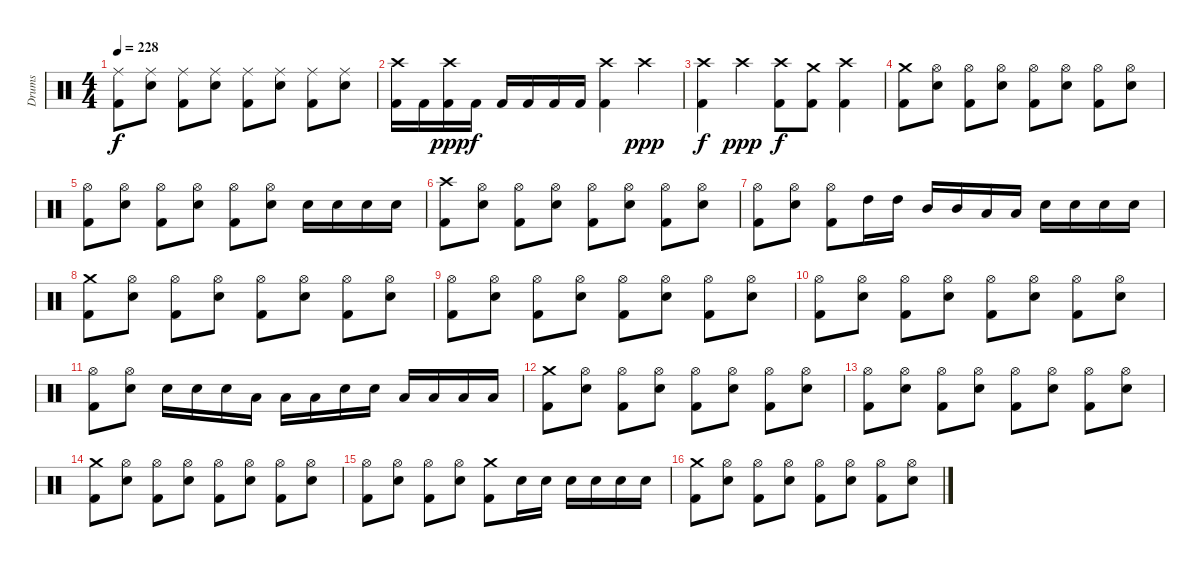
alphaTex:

\track ("Drums" "Drums") {instrument percussion}
\staff {score}
\articulation defaults
\ts (4 4)
\tempo 228
\clef neutral
\ks c
("Ride (middle)" "Kick (hit) 2").8{dy f} ("Electric Snare (hit)" "Ride (middle)").8 ("Kick (hit) 2" "Ride (middle)").8 ("Electric Snare (hit)" "Ride (middle)").8 ("Kick (hit) 2" "Ride (middle)").8 ("Electric Snare (hit)" "Ride (middle)").8 ("Kick (hit) 2" "Ride (middle)").8 ("Electric Snare (hit)" "Ride (middle)").8 |
("Crash high (hit)" "Kick (hit) 2").16 "Kick (hit) 2".16 ("Crash high (hit)" "Kick (hit) 2").16{dy ppp} "Kick (hit) 2".16{dy f} "Kick (hit) 2".16 "Kick (hit) 2".16 "Kick (hit) 2".16 "Kick (hit) 2".16 ("Crash high (hit)" "Kick (hit) 2").4 "Crash high (hit)".4{dy ppp} |
("Crash high (hit)" "Kick (hit) 2").4{dy f} "Crash high (hit)".4{dy ppp} ("Crash high (hit)" "Kick (hit) 2").8{dy f} ("Kick (hit) 2" "Crash medium (hit)").8 ("Crash high (hit)" "Kick (hit) 2").4 |
("Kick (hit) 2" "Crash medium (hit)").8 ("Hi-Hat (open)" "Electric Snare (hit)").8 ("Hi-Hat (open)" "Kick (hit) 2").8 ("Hi-Hat (open)" "Electric Snare (hit)").8 ("Hi-Hat (open)" "Kick (hit) 2").8 ("Hi-Hat (open)" "Electric Snare (hit)").8 ("Hi-Hat (open)" "Kick (hit) 2").8 ("Hi-Hat (open)" "Electric Snare (hit)").8 |
("Kick (hit) 2" "Hi-Hat (open)").8 ("Hi-Hat (open)" "Electric Snare (hit)").8 ("Hi-Hat (open)" "Kick (hit) 2").8 ("Hi-Hat (open)" "Electric Snare (hit)").8 ("Hi-Hat (open)" "Kick (hit) 2").8 ("Hi-Hat (open)" "Electric Snare (hit)").8 "Electric Snare (hit)".16 "Electric Snare (hit)".16 "Electric Snare (hit)".16 "Electric Snare (hit)".16 |
("Kick (hit) 2" "Crash high (hit)").8 ("Hi-Hat (open)" "Electric Snare (hit)").8 ("Hi-Hat (open)" "Kick (hit) 2").8 ("Hi-Hat (open)" "Electric Snare (hit)").8 ("Hi-Hat (open)" "Kick (hit) 2").8 ("Hi-Hat (open)" "Electric Snare (hit)").8 ("Hi-Hat (open)" "Kick (hit) 2").8 ("Hi-Hat (open)" "Electric Snare (hit)").8 |
("Kick (hit) 2" "Hi-Hat (open)").8 ("Hi-Hat (open)" "Electric Snare (hit)").8 ("Hi-Hat (open)" "Kick (hit) 2").8 "High Tom (hit)".16 "High Tom (hit)".16 "Mid Tom (hit)".16 "Mid Tom (hit)".16 "Low Tom (hit)".16 "Low Tom (hit)".16 "Electric Snare (hit)".16 "Electric Snare (hit)".16 "Electric Snare (hit)".16 "Electric Snare (hit)".16 |
("Kick (hit) 2" "Crash medium (hit)").8 ("Hi-Hat (open)" "Electric Snare (hit)").8 ("Hi-Hat (open)" "Kick (hit) 2").8 ("Hi-Hat (open)" "Electric Snare (hit)").8 ("Hi-Hat (open)" "Kick (hit) 2").8 ("Hi-Hat (open)" "Electric Snare (hit)").8 ("Hi-Hat (open)" "Kick (hit) 2").8 ("Hi-Hat (open)" "Electric Snare (hit)").8 |
("Kick (hit) 2" "Hi-Hat (open)").8 ("Hi-Hat (open)" "Electric Snare (hit)").8 ("Hi-Hat (open)" "Kick (hit) 2").8 ("Hi-Hat (open)" "Electric Snare (hit)").8 ("Hi-Hat (open)" "Kick (hit) 2").8 ("Hi-Hat (open)" "Electric Snare (hit)").8 ("Hi-Hat (open)" "Kick (hit) 2").8 ("Hi-Hat (open)" "Electric Snare (hit)").8 |
("Kick (hit) 2" "Hi-Hat (open)").8 ("Hi-Hat (open)" "Electric Snare (hit)").8 ("Hi-Hat (open)" "Kick (hit) 2").8 ("Hi-Hat (open)" "Electric Snare (hit)").8 ("Hi-Hat (open)" "Kick (hit) 2").8 ("Hi-Hat (open)" "Electric Snare (hit)").8 ("Hi-Hat (open)" "Kick (hit) 2").8 ("Hi-Hat (open)" "Electric Snare (hit)").8 |
("Kick (hit) 2" "Hi-Hat (open)").8 ("Hi-Hat (open)" "Electric Snare (hit)").8 "Electric Snare (hit)".16 "Electric Snare (hit)".16 "Electric Snare (hit)".16 "Low Tom (hit)".16 "Low Tom (hit)".16 "Low Tom (hit)".16 "Electric Snare (hit)".16 "Electric Snare (hit)".16 "Low Tom (hit)".16 "Low Tom (hit)".16 "Low Tom (hit)".16 "Low Tom (hit)".16 |
("Kick (hit) 2" "Crash medium (hit)").8 ("Hi-Hat (open)" "Electric Snare (hit)").8 ("Hi-Hat (open)" "Kick (hit) 2").8 ("Hi-Hat (open)" "Electric Snare (hit)").8 ("Hi-Hat (open)" "Kick (hit) 2").8 ("Hi-Hat (open)" "Electric Snare (hit)").8 ("Hi-Hat (open)" "Kick (hit) 2").8 ("Hi-Hat (open)" "Electric Snare (hit)").8 |
("Kick (hit) 2" "Hi-Hat (open)").8 ("Hi-Hat (open)" "Electric Snare (hit)").8 ("Hi-Hat (open)" "Kick (hit) 2").8 ("Hi-Hat (open)" "Electric Snare (hit)").8 ("Hi-Hat (open)" "Kick (hit) 2").8 ("Hi-Hat (open)" "Electric Snare (hit)").8 ("Hi-Hat (open)" "Kick (hit) 2").8 ("Hi-Hat (open)" "Electric Snare (hit)").8 |
("Kick (hit) 2" "Crash medium (hit)").8 ("Hi-Hat (open)" "Electric Snare (hit)").8 ("Hi-Hat (open)" "Kick (hit) 2").8 ("Hi-Hat (open)" "Electric Snare (hit)").8 ("Hi-Hat (open)" "Kick (hit) 2").8 ("Hi-Hat (open)" "Electric Snare (hit)").8 ("Hi-Hat (open)" "Kick (hit) 2").8 ("Hi-Hat (open)" "Electric Snare (hit)").8 |
("Kick (hit) 2" "Hi-Hat (open)").8 ("Hi-Hat (open)" "Electric Snare (hit)").8 ("Hi-Hat (open)" "Kick (hit) 2").8 ("Hi-Hat (open)" "Electric Snare (hit)").8 ("Crash medium (hit)" "Kick (hit) 2").8 "Electric Snare (hit)".16 "Electric Snare (hit)".16 "Electric Snare (hit)".16 "Electric Snare (hit)".16 "Electric Snare (hit)".16 "Electric Snare (hit)".16 |
("Kick (hit) 2" "Crash medium (hit)").8 ("Hi-Hat (open)" "Electric Snare (hit)").8 ("Hi-Hat (open)" "Kick (hit) 2").8 ("Hi-Hat (open)" "Electric Snare (hit)").8 ("Hi-Hat (open)" "Kick (hit) 2").8 ("Hi-Hat (open)" "Electric Snare (hit)").8 ("Hi-Hat (open)" "Kick (hit) 2").8 ("Hi-Hat (open)" "Electric Snare (hit)").8
